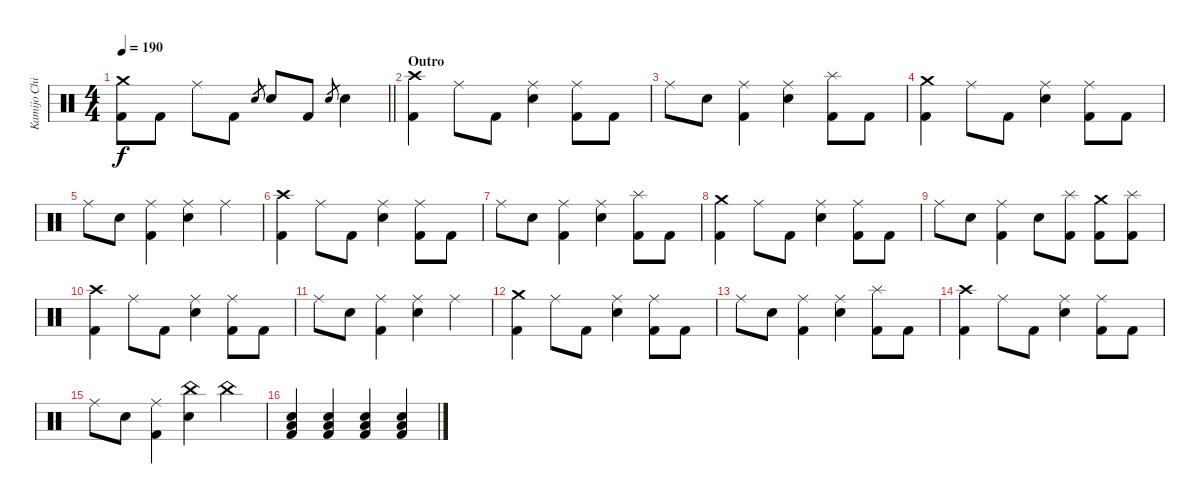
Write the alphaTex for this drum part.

\track ("Kamijo Chihiro" "Kamijo Chi") {instrument percussion}
\staff {score}
\articulation defaults
\ts (4 4)
\tempo 190
\clef neutral
\barLineRight lightlight
\ks c
("Crash medium (hit)" "Kick (hit) 2").8{dy f} "Kick (hit) 2".8 "Ride (middle)".8 "Kick (hit) 2".8 "Snare (hit) 2".8{gr} "Snare (hit) 2".8 "Kick (hit) 2".8 "Snare (hit) 2".8{gr} "Snare (hit) 2".4 |
\section ("" "Outro")
("Crash high (hit)" "Kick (hit) 2").4 "Ride (middle)".8 "Kick (hit) 2".8 ("Ride (middle)" "Snare (hit) 2").4 ("Ride (middle)" "Kick (hit) 2").8 "Kick (hit) 2".8 |
"Ride (middle)".8 "Snare (hit) 2".8 ("Ride (middle)" "Kick (hit) 2").4 ("Ride (middle)" "Snare (hit) 2").4 ("Splash (hit)" "Kick (hit) 2").8 "Kick (hit) 2".8 |
("Crash medium (hit)" "Kick (hit) 2").4 "Ride (middle)".8 "Kick (hit) 2".8 ("Ride (middle)" "Snare (hit) 2").4 ("Ride (middle)" "Kick (hit) 2").8 "Kick (hit) 2".8 |
"Ride (middle)".8 "Snare (hit) 2".8 ("Ride (middle)" "Kick (hit) 2").4 ("Ride (middle)" "Snare (hit) 2").4 "Ride (middle)".4 |
("Crash high (hit)" "Kick (hit) 2").4 "Ride (middle)".8 "Kick (hit) 2".8 ("Ride (middle)" "Snare (hit) 2").4 ("Ride (middle)" "Kick (hit) 2").8 "Kick (hit) 2".8 |
"Ride (middle)".8 "Snare (hit) 2".8 ("Ride (middle)" "Kick (hit) 2").4 ("Ride (middle)" "Snare (hit) 2").4 ("Splash (hit)" "Kick (hit) 2").8 "Kick (hit) 2".8 |
("Crash medium (hit)" "Kick (hit) 2").4 "Ride (middle)".8 "Kick (hit) 2".8 ("Ride (middle)" "Snare (hit) 2").4 ("Ride (middle)" "Kick (hit) 2").8 "Kick (hit) 2".8 |
"Ride (middle)".8 "Snare (hit) 2".8 ("Ride (middle)" "Kick (hit) 2").4 "Snare (hit) 2".8 ("Splash (hit)" "Kick (hit) 2").8 ("Crash medium (hit)" "Kick (hit) 2").8 ("Splash (hit)" "Kick (hit) 2").8 |
("Crash high (hit)" "Kick (hit) 2").4 "Ride (middle)".8 "Kick (hit) 2".8 ("Ride (middle)" "Snare (hit) 2").4 ("Ride (middle)" "Kick (hit) 2").8 "Kick (hit) 2".8 |
"Ride (middle)".8 "Snare (hit) 2".8 ("Ride (middle)" "Kick (hit) 2").4 ("Ride (middle)" "Snare (hit) 2").4 "Ride (middle)".4 |
("Crash medium (hit)" "Kick (hit) 2").4 "Ride (middle)".8 "Kick (hit) 2".8 ("Ride (middle)" "Snare (hit) 2").4 ("Ride (middle)" "Kick (hit) 2").8 "Kick (hit) 2".8 |
"Ride (middle)".8 "Snare (hit) 2".8 ("Ride (middle)" "Kick (hit) 2").4 ("Ride (middle)" "Snare (hit) 2").4 ("Splash (hit)" "Kick (hit) 2").8 "Kick (hit) 2".8 |
("Crash high (hit)" "Kick (hit) 2").4 "Ride (middle)".8 "Kick (hit) 2".8 ("Ride (middle)" "Snare (hit) 2").4 ("Ride (middle)" "Kick (hit) 2").8 "Kick (hit) 2".8 |
"Ride (middle)".8 "Snare (hit) 2".8 ("Ride (middle)" "Kick (hit) 2").4 ("China (hit)" "Snare (hit) 2").4 "China (hit)".4 |
("Snare (hit) 2" "Low Floor Tom (hit)" "Kick (hit) 2").4 ("Snare (hit) 2" "Low Floor Tom (hit)" "Kick (hit) 2").4 ("Snare (hit) 2" "Low Floor Tom (hit)" "Kick (hit) 2").4 ("Snare (hit) 2" "Low Floor Tom (hit)" "Kick (hit) 2").4
